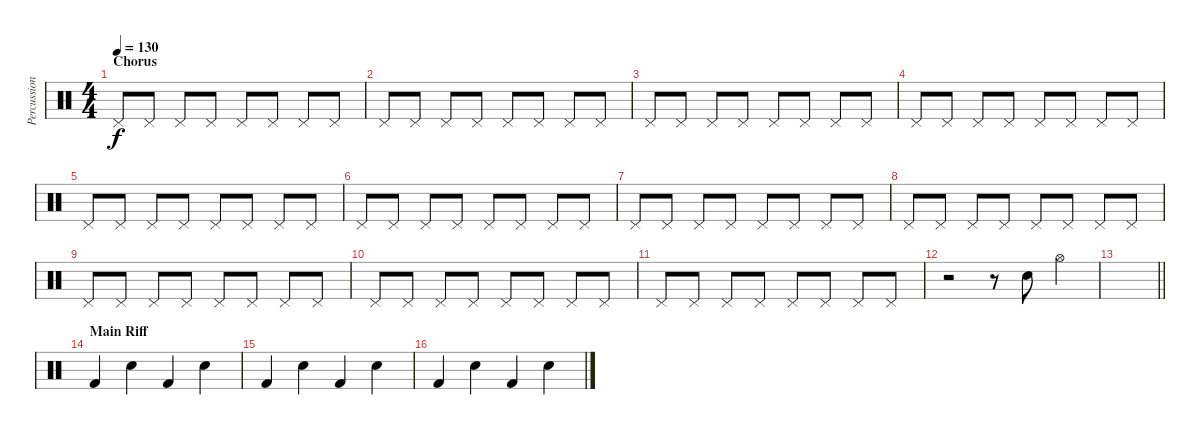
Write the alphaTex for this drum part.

\track ("Percussion" "Percussion") {instrument percussion}
\staff {score}
\articulation defaults
\ts (4 4)
\section ("" "Chorus")
\tempo 130
\clef neutral
\ks c "Pedal Hi-Hat (hit)".8{dy f} "Pedal Hi-Hat (hit)".8 "Pedal Hi-Hat (hit)".8 "Pedal Hi-Hat (hit)".8 "Pedal Hi-Hat (hit)".8 "Pedal Hi-Hat (hit)".8 "Pedal Hi-Hat (hit)".8 "Pedal Hi-Hat (hit)".8
|
"Pedal Hi-Hat (hit)".8 "Pedal Hi-Hat (hit)".8 "Pedal Hi-Hat (hit)".8 "Pedal Hi-Hat (hit)".8 "Pedal Hi-Hat (hit)".8 "Pedal Hi-Hat (hit)".8 "Pedal Hi-Hat (hit)".8 "Pedal Hi-Hat (hit)".8 |
"Pedal Hi-Hat (hit)".8 "Pedal Hi-Hat (hit)".8 "Pedal Hi-Hat (hit)".8 "Pedal Hi-Hat (hit)".8 "Pedal Hi-Hat (hit)".8 "Pedal Hi-Hat (hit)".8 "Pedal Hi-Hat (hit)".8 "Pedal Hi-Hat (hit)".8 |
"Pedal Hi-Hat (hit)".8 "Pedal Hi-Hat (hit)".8 "Pedal Hi-Hat (hit)".8 "Pedal Hi-Hat (hit)".8 "Pedal Hi-Hat (hit)".8 "Pedal Hi-Hat (hit)".8 "Pedal Hi-Hat (hit)".8 "Pedal Hi-Hat (hit)".8 |
"Pedal Hi-Hat (hit)".8 "Pedal Hi-Hat (hit)".8 "Pedal Hi-Hat (hit)".8 "Pedal Hi-Hat (hit)".8 "Pedal Hi-Hat (hit)".8 "Pedal Hi-Hat (hit)".8 "Pedal Hi-Hat (hit)".8 "Pedal Hi-Hat (hit)".8 |
"Pedal Hi-Hat (hit)".8 "Pedal Hi-Hat (hit)".8 "Pedal Hi-Hat (hit)".8 "Pedal Hi-Hat (hit)".8 "Pedal Hi-Hat (hit)".8 "Pedal Hi-Hat (hit)".8 "Pedal Hi-Hat (hit)".8 "Pedal Hi-Hat (hit)".8 |
"Pedal Hi-Hat (hit)".8 "Pedal Hi-Hat (hit)".8 "Pedal Hi-Hat (hit)".8 "Pedal Hi-Hat (hit)".8 "Pedal Hi-Hat (hit)".8 "Pedal Hi-Hat (hit)".8 "Pedal Hi-Hat (hit)".8 "Pedal Hi-Hat (hit)".8 |
"Pedal Hi-Hat (hit)".8 "Pedal Hi-Hat (hit)".8 "Pedal Hi-Hat (hit)".8 "Pedal Hi-Hat (hit)".8 "Pedal Hi-Hat (hit)".8 "Pedal Hi-Hat (hit)".8 "Pedal Hi-Hat (hit)".8 "Pedal Hi-Hat (hit)".8 |
"Pedal Hi-Hat (hit)".8 "Pedal Hi-Hat (hit)".8 "Pedal Hi-Hat (hit)".8 "Pedal Hi-Hat (hit)".8 "Pedal Hi-Hat (hit)".8 "Pedal Hi-Hat (hit)".8 "Pedal Hi-Hat (hit)".8 "Pedal Hi-Hat (hit)".8 |
"Pedal Hi-Hat (hit)".8 "Pedal Hi-Hat (hit)".8 "Pedal Hi-Hat (hit)".8 "Pedal Hi-Hat (hit)".8 "Pedal Hi-Hat (hit)".8 "Pedal Hi-Hat (hit)".8 "Pedal Hi-Hat (hit)".8 "Pedal Hi-Hat (hit)".8 |
"Pedal Hi-Hat (hit)".8 "Pedal Hi-Hat (hit)".8 "Pedal Hi-Hat (hit)".8 "Pedal Hi-Hat (hit)".8 "Pedal Hi-Hat (hit)".8 "Pedal Hi-Hat (hit)".8 "Pedal Hi-Hat (hit)".8 "Pedal Hi-Hat (hit)".8 |
r.2 r.8 "Electric Snare (hit)".8 "Hi-Hat (open)".4 |
\barLineRight lightlight
|
\section ("" "Main Riff")
"Kick (hit) 2".4 "Electric Snare (hit)".4 "Kick (hit) 2".4 "Electric Snare (hit)".4 |
"Kick (hit) 2".4 "Electric Snare (hit)".4 "Kick (hit) 2".4 "Electric Snare (hit)".4 |
"Kick (hit) 2".4 "Electric Snare (hit)".4 "Kick (hit) 2".4 "Electric Snare (hit)".4
